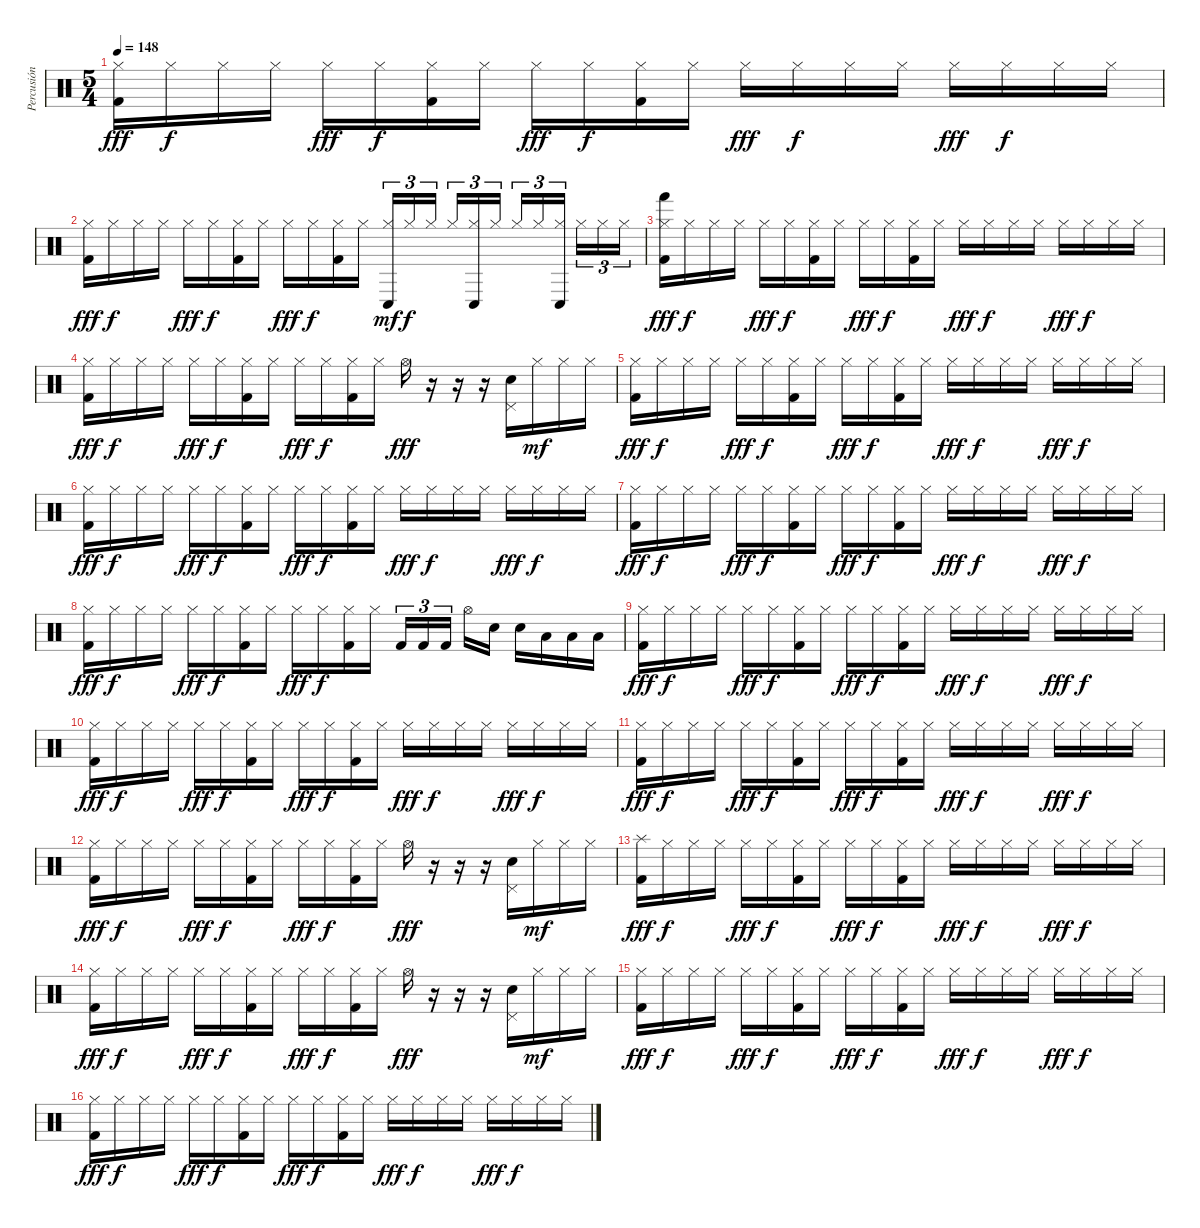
\track ("Percusión" "Percusión") {instrument percussion}
\staff {score}
\articulation defaults
\ts (5 4)
\tempo 148
\clef neutral
\ks c
("Hi-Hat (closed)" "Kick (hit) 2").16{dy fff} "Hi-Hat (closed)".16{dy f} "Hi-Hat (closed)".16 "Hi-Hat (closed)".16 "Hi-Hat (closed)".16{dy fff} "Hi-Hat (closed)".16{dy f} ("Hi-Hat (closed)" "Kick (hit) 2").16 "Hi-Hat (closed)".16 "Hi-Hat (closed)".16{dy fff} "Hi-Hat (closed)".16{dy f} ("Hi-Hat (closed)" "Kick (hit) 2").16 "Hi-Hat (closed)".16 "Hi-Hat (closed)".16{dy fff} "Hi-Hat (closed)".16{dy f} "Hi-Hat (closed)".16 "Hi-Hat (closed)".16 "Hi-Hat (closed)".16{dy fff} "Hi-Hat (closed)".16{dy f} "Hi-Hat (closed)".16 "Hi-Hat (closed)".16 |
("Hi-Hat (closed)" "Kick (hit) 2").16{dy fff} "Hi-Hat (closed)".16{dy f} "Hi-Hat (closed)".16 "Hi-Hat (closed)".16 "Hi-Hat (closed)".16{dy fff} "Hi-Hat (closed)".16{dy f} ("Hi-Hat (closed)" "Kick (hit) 2").16 "Hi-Hat (closed)".16 "Hi-Hat (closed)".16{dy fff} "Hi-Hat (closed)".16{dy f} ("Hi-Hat (closed)" "Kick (hit) 2").16 "Hi-Hat (closed)".16 ("Hi-Hat (closed)" "Conga low (hit)").16{tu (3 2) dy mf} "Hi-Hat (closed)".16{tu (3 2) dy f} "Hi-Hat (closed)".16{tu (3 2) beam splitsecondary} "Hi-Hat (closed)".16{tu (3 2)} ("Hi-Hat (closed)" "Conga low (hit)").16{tu (3 2)} "Hi-Hat (closed)".16{tu (3 2)} "Hi-Hat (closed)".16{tu (3 2)} "Hi-Hat (closed)".16{tu (3 2)} ("Hi-Hat (closed)" "Conga low (hit)").16{tu (3 2) beam splitsecondary} "Hi-Hat (closed)".16{tu (3 2)} "Hi-Hat (closed)".16{tu (3 2)} "Hi-Hat (closed)".16{tu (3 2)} |
("Hi-Hat (closed)" "Hand (hit)" "Kick (hit) 2").16{dy fff} "Hi-Hat (closed)".16{dy f} "Hi-Hat (closed)".16 "Hi-Hat (closed)".16 "Hi-Hat (closed)".16{dy fff} "Hi-Hat (closed)".16{dy f} ("Hi-Hat (closed)" "Kick (hit) 2").16 "Hi-Hat (closed)".16 "Hi-Hat (closed)".16{dy fff} "Hi-Hat (closed)".16{dy f} ("Hi-Hat (closed)" "Kick (hit) 2").16 "Hi-Hat (closed)".16 "Hi-Hat (closed)".16{dy fff} "Hi-Hat (closed)".16{dy f} "Hi-Hat (closed)".16 "Hi-Hat (closed)".16 "Hi-Hat (closed)".16{dy fff} "Hi-Hat (closed)".16{dy f} "Hi-Hat (closed)".16 "Hi-Hat (closed)".16 |
("Hi-Hat (closed)" "Kick (hit) 2").16{dy fff} "Hi-Hat (closed)".16{dy f} "Hi-Hat (closed)".16 "Hi-Hat (closed)".16 "Hi-Hat (closed)".16{dy fff} "Hi-Hat (closed)".16{dy f} ("Hi-Hat (closed)" "Kick (hit) 2").16 "Hi-Hat (closed)".16 "Hi-Hat (closed)".16{dy fff} "Hi-Hat (closed)".16{dy f} ("Hi-Hat (closed)" "Kick (hit) 2").16 "Hi-Hat (closed)".16 "Hi-Hat (open)".16{dy fff} r.16 r.16 r.16 ("Pedal Hi-Hat (hit)" "Electric Snare (hit)").16 "Hi-Hat (closed)".16{dy mf} "Hi-Hat (closed)".16 "Hi-Hat (closed)".16 |
("Hi-Hat (closed)" "Kick (hit) 2").16{dy fff} "Hi-Hat (closed)".16{dy f} "Hi-Hat (closed)".16 "Hi-Hat (closed)".16 "Hi-Hat (closed)".16{dy fff} "Hi-Hat (closed)".16{dy f} ("Hi-Hat (closed)" "Kick (hit) 2").16 "Hi-Hat (closed)".16 "Hi-Hat (closed)".16{dy fff} "Hi-Hat (closed)".16{dy f} ("Hi-Hat (closed)" "Kick (hit) 2").16 "Hi-Hat (closed)".16 "Hi-Hat (closed)".16{dy fff} "Hi-Hat (closed)".16{dy f} "Hi-Hat (closed)".16 "Hi-Hat (closed)".16 "Hi-Hat (closed)".16{dy fff} "Hi-Hat (closed)".16{dy f} "Hi-Hat (closed)".16 "Hi-Hat (closed)".16 |
("Hi-Hat (closed)" "Kick (hit) 2").16{dy fff} "Hi-Hat (closed)".16{dy f} "Hi-Hat (closed)".16 "Hi-Hat (closed)".16 "Hi-Hat (closed)".16{dy fff} "Hi-Hat (closed)".16{dy f} ("Hi-Hat (closed)" "Kick (hit) 2").16 "Hi-Hat (closed)".16 "Hi-Hat (closed)".16{dy fff} "Hi-Hat (closed)".16{dy f} ("Hi-Hat (closed)" "Kick (hit) 2").16 "Hi-Hat (closed)".16 "Hi-Hat (closed)".16{dy fff} "Hi-Hat (closed)".16{dy f} "Hi-Hat (closed)".16 "Hi-Hat (closed)".16 "Hi-Hat (closed)".16{dy fff} "Hi-Hat (closed)".16{dy f} "Hi-Hat (closed)".16 "Hi-Hat (closed)".16 |
("Hi-Hat (closed)" "Kick (hit) 2").16{dy fff} "Hi-Hat (closed)".16{dy f} "Hi-Hat (closed)".16 "Hi-Hat (closed)".16 "Hi-Hat (closed)".16{dy fff} "Hi-Hat (closed)".16{dy f} ("Hi-Hat (closed)" "Kick (hit) 2").16 "Hi-Hat (closed)".16 "Hi-Hat (closed)".16{dy fff} "Hi-Hat (closed)".16{dy f} ("Hi-Hat (closed)" "Kick (hit) 2").16 "Hi-Hat (closed)".16 "Hi-Hat (closed)".16{dy fff} "Hi-Hat (closed)".16{dy f} "Hi-Hat (closed)".16 "Hi-Hat (closed)".16 "Hi-Hat (closed)".16{dy fff} "Hi-Hat (closed)".16{dy f} "Hi-Hat (closed)".16 "Hi-Hat (closed)".16 |
("Hi-Hat (closed)" "Kick (hit) 2").16{dy fff} "Hi-Hat (closed)".16{dy f} "Hi-Hat (closed)".16 "Hi-Hat (closed)".16 "Hi-Hat (closed)".16{dy fff} "Hi-Hat (closed)".16{dy f} ("Hi-Hat (closed)" "Kick (hit) 2").16 "Hi-Hat (closed)".16 "Hi-Hat (closed)".16{dy fff} "Hi-Hat (closed)".16{dy f} ("Hi-Hat (closed)" "Kick (hit) 2").16 "Hi-Hat (closed)".16 "Kick (hit) 2".16{tu (3 2)} "Kick (hit) 2".16{tu (3 2)} "Kick (hit) 2".16{tu (3 2) beam splitsecondary} "Hi-Hat (open)".16 "Electric Snare (hit)".16 "Electric Snare (hit)".16 "Low Tom (hit)".16 "Low Tom (hit)".16 "Low Tom (hit)".16 |
("Hi-Hat (closed)" "Kick (hit) 2").16{dy fff} "Hi-Hat (closed)".16{dy f} "Hi-Hat (closed)".16 "Hi-Hat (closed)".16 "Hi-Hat (closed)".16{dy fff} "Hi-Hat (closed)".16{dy f} ("Hi-Hat (closed)" "Kick (hit) 2").16 "Hi-Hat (closed)".16 "Hi-Hat (closed)".16{dy fff} "Hi-Hat (closed)".16{dy f} ("Hi-Hat (closed)" "Kick (hit) 2").16 "Hi-Hat (closed)".16 "Hi-Hat (closed)".16{dy fff} "Hi-Hat (closed)".16{dy f} "Hi-Hat (closed)".16 "Hi-Hat (closed)".16 "Hi-Hat (closed)".16{dy fff} "Hi-Hat (closed)".16{dy f} "Hi-Hat (closed)".16 "Hi-Hat (closed)".16 |
("Hi-Hat (closed)" "Kick (hit) 2").16{dy fff} "Hi-Hat (closed)".16{dy f} "Hi-Hat (closed)".16 "Hi-Hat (closed)".16 "Hi-Hat (closed)".16{dy fff} "Hi-Hat (closed)".16{dy f} ("Hi-Hat (closed)" "Kick (hit) 2").16 "Hi-Hat (closed)".16 "Hi-Hat (closed)".16{dy fff} "Hi-Hat (closed)".16{dy f} ("Hi-Hat (closed)" "Kick (hit) 2").16 "Hi-Hat (closed)".16 "Hi-Hat (closed)".16{dy fff} "Hi-Hat (closed)".16{dy f} "Hi-Hat (closed)".16 "Hi-Hat (closed)".16 "Hi-Hat (closed)".16{dy fff} "Hi-Hat (closed)".16{dy f} "Hi-Hat (closed)".16 "Hi-Hat (closed)".16 |
("Hi-Hat (closed)" "Kick (hit) 2").16{dy fff} "Hi-Hat (closed)".16{dy f} "Hi-Hat (closed)".16 "Hi-Hat (closed)".16 "Hi-Hat (closed)".16{dy fff} "Hi-Hat (closed)".16{dy f} ("Hi-Hat (closed)" "Kick (hit) 2").16 "Hi-Hat (closed)".16 "Hi-Hat (closed)".16{dy fff} "Hi-Hat (closed)".16{dy f} ("Hi-Hat (closed)" "Kick (hit) 2").16 "Hi-Hat (closed)".16 "Hi-Hat (closed)".16{dy fff} "Hi-Hat (closed)".16{dy f} "Hi-Hat (closed)".16 "Hi-Hat (closed)".16 "Hi-Hat (closed)".16{dy fff} "Hi-Hat (closed)".16{dy f} "Hi-Hat (closed)".16 "Hi-Hat (closed)".16 |
("Hi-Hat (closed)" "Kick (hit) 2").16{dy fff} "Hi-Hat (closed)".16{dy f} "Hi-Hat (closed)".16 "Hi-Hat (closed)".16 "Hi-Hat (closed)".16{dy fff} "Hi-Hat (closed)".16{dy f} ("Hi-Hat (closed)" "Kick (hit) 2").16 "Hi-Hat (closed)".16 "Hi-Hat (closed)".16{dy fff} "Hi-Hat (closed)".16{dy f} ("Hi-Hat (closed)" "Kick (hit) 2").16 "Hi-Hat (closed)".16 "Hi-Hat (open)".16{dy fff} r.16 r.16 r.16 ("Pedal Hi-Hat (hit)" "Electric Snare (hit)").16 "Hi-Hat (closed)".16{dy mf} "Hi-Hat (closed)".16 "Hi-Hat (closed)".16 |
("Splash (hit)" "Kick (hit) 2").16{dy fff} "Hi-Hat (closed)".16{dy f} "Hi-Hat (closed)".16 "Hi-Hat (closed)".16 "Hi-Hat (closed)".16{dy fff} "Hi-Hat (closed)".16{dy f} ("Hi-Hat (closed)" "Kick (hit) 2").16 "Hi-Hat (closed)".16 "Hi-Hat (closed)".16{dy fff} "Hi-Hat (closed)".16{dy f} ("Hi-Hat (closed)" "Kick (hit) 2").16 "Hi-Hat (closed)".16 "Hi-Hat (closed)".16{dy fff} "Hi-Hat (closed)".16{dy f} "Hi-Hat (closed)".16 "Hi-Hat (closed)".16 "Hi-Hat (closed)".16{dy fff} "Hi-Hat (closed)".16{dy f} "Hi-Hat (closed)".16 "Hi-Hat (closed)".16 |
("Hi-Hat (closed)" "Kick (hit) 2").16{dy fff} "Hi-Hat (closed)".16{dy f} "Hi-Hat (closed)".16 "Hi-Hat (closed)".16 "Hi-Hat (closed)".16{dy fff} "Hi-Hat (closed)".16{dy f} ("Hi-Hat (closed)" "Kick (hit) 2").16 "Hi-Hat (closed)".16 "Hi-Hat (closed)".16{dy fff} "Hi-Hat (closed)".16{dy f} ("Hi-Hat (closed)" "Kick (hit) 2").16 "Hi-Hat (closed)".16 "Hi-Hat (open)".16{dy fff} r.16 r.16 r.16 ("Pedal Hi-Hat (hit)" "Electric Snare (hit)").16 "Hi-Hat (closed)".16{dy mf} "Hi-Hat (closed)".16 "Hi-Hat (closed)".16 |
("Hi-Hat (closed)" "Kick (hit) 2").16{dy fff} "Hi-Hat (closed)".16{dy f} "Hi-Hat (closed)".16 "Hi-Hat (closed)".16 "Hi-Hat (closed)".16{dy fff} "Hi-Hat (closed)".16{dy f} ("Hi-Hat (closed)" "Kick (hit) 2").16 "Hi-Hat (closed)".16 "Hi-Hat (closed)".16{dy fff} "Hi-Hat (closed)".16{dy f} ("Hi-Hat (closed)" "Kick (hit) 2").16 "Hi-Hat (closed)".16 "Hi-Hat (closed)".16{dy fff} "Hi-Hat (closed)".16{dy f} "Hi-Hat (closed)".16 "Hi-Hat (closed)".16 "Hi-Hat (closed)".16{dy fff} "Hi-Hat (closed)".16{dy f} "Hi-Hat (closed)".16 "Hi-Hat (closed)".16 |
("Hi-Hat (closed)" "Kick (hit) 2").16{dy fff} "Hi-Hat (closed)".16{dy f} "Hi-Hat (closed)".16 "Hi-Hat (closed)".16 "Hi-Hat (closed)".16{dy fff} "Hi-Hat (closed)".16{dy f} ("Hi-Hat (closed)" "Kick (hit) 2").16 "Hi-Hat (closed)".16 "Hi-Hat (closed)".16{dy fff} "Hi-Hat (closed)".16{dy f} ("Hi-Hat (closed)" "Kick (hit) 2").16 "Hi-Hat (closed)".16 "Hi-Hat (closed)".16{dy fff} "Hi-Hat (closed)".16{dy f} "Hi-Hat (closed)".16 "Hi-Hat (closed)".16 "Hi-Hat (closed)".16{dy fff} "Hi-Hat (closed)".16{dy f} "Hi-Hat (closed)".16 "Hi-Hat (closed)".16
